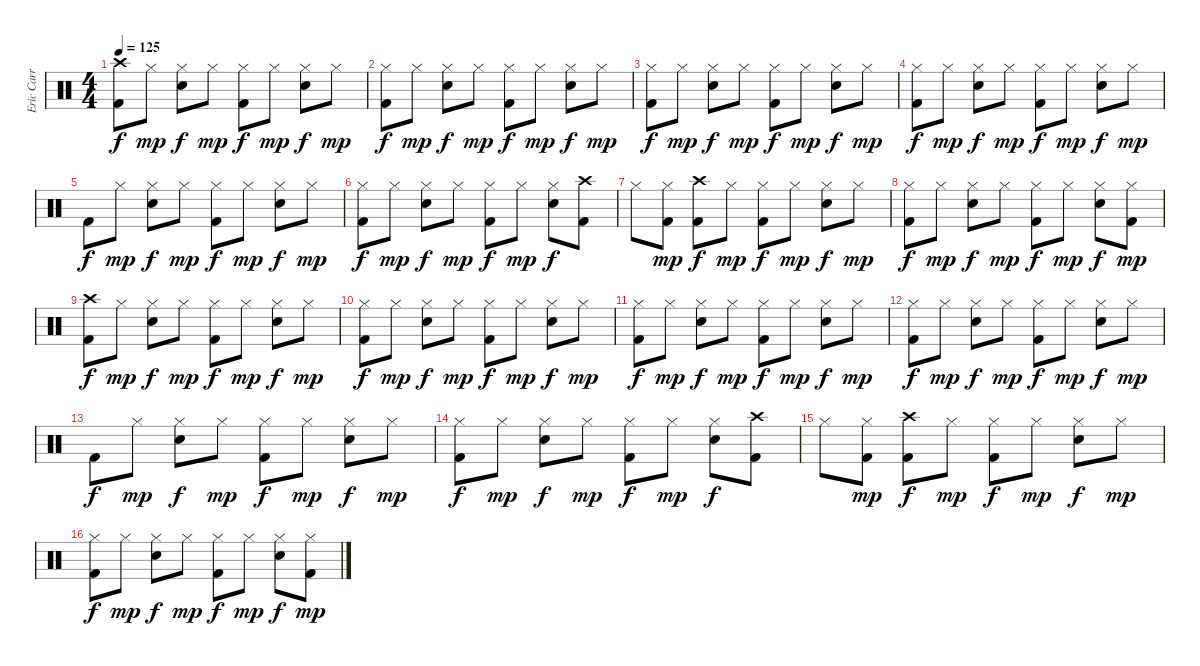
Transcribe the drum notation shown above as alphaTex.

\track ("Eric Carr" "Eric Carr") {instrument percussion}
\staff {score}
\articulation defaults
\ts (4 4)
\tempo 125
\clef neutral
\ks c
("Crash high (hit)" "Kick (hit) 2").8{dy f} "Hi-Hat (closed)".8{dy mp} ("Hi-Hat (closed)" "Snare (hit) 2").8{dy f} "Hi-Hat (closed)".8{dy mp} ("Hi-Hat (closed)" "Kick (hit) 2").8{dy f} "Hi-Hat (closed)".8{dy mp} ("Hi-Hat (closed)" "Snare (hit) 2").8{dy f} "Hi-Hat (closed)".8{dy mp} |
("Hi-Hat (closed)" "Kick (hit) 2").8{dy f} "Hi-Hat (closed)".8{dy mp} ("Hi-Hat (closed)" "Snare (hit) 2").8{dy f} "Hi-Hat (closed)".8{dy mp} ("Hi-Hat (closed)" "Kick (hit) 2").8{dy f} "Hi-Hat (closed)".8{dy mp} ("Hi-Hat (closed)" "Snare (hit) 2").8{dy f} "Hi-Hat (closed)".8{dy mp} |
("Hi-Hat (closed)" "Kick (hit) 2").8{dy f} "Hi-Hat (closed)".8{dy mp} ("Hi-Hat (closed)" "Snare (hit) 2").8{dy f} "Hi-Hat (closed)".8{dy mp} ("Hi-Hat (closed)" "Kick (hit) 2").8{dy f} "Hi-Hat (closed)".8{dy mp} ("Hi-Hat (closed)" "Snare (hit) 2").8{dy f} "Hi-Hat (closed)".8{dy mp} |
("Hi-Hat (closed)" "Kick (hit) 2").8{dy f} "Hi-Hat (closed)".8{dy mp} ("Hi-Hat (closed)" "Snare (hit) 2").8{dy f} "Hi-Hat (closed)".8{dy mp} ("Hi-Hat (closed)" "Kick (hit) 2").8{dy f} "Hi-Hat (closed)".8{dy mp} ("Hi-Hat (closed)" "Snare (hit) 2").8{dy f} "Hi-Hat (closed)".8{dy mp} |
"Kick (hit) 2".8{dy f} "Hi-Hat (closed)".8{dy mp} ("Hi-Hat (closed)" "Snare (hit) 2").8{dy f} "Hi-Hat (closed)".8{dy mp} ("Hi-Hat (closed)" "Kick (hit) 2").8{dy f} "Hi-Hat (closed)".8{dy mp} ("Hi-Hat (closed)" "Snare (hit) 2").8{dy f} "Hi-Hat (closed)".8{dy mp} |
("Hi-Hat (closed)" "Kick (hit) 2").8{dy f} "Hi-Hat (closed)".8{dy mp} ("Hi-Hat (closed)" "Snare (hit) 2").8{dy f} "Hi-Hat (closed)".8{dy mp} ("Hi-Hat (closed)" "Kick (hit) 2").8{dy f} "Hi-Hat (closed)".8{dy mp} ("Hi-Hat (closed)" "Snare (hit) 2").8{dy f} ("Crash high (hit)" "Kick (hit) 2").8 |
"Hi-Hat (closed)".8 ("Hi-Hat (closed)" "Kick (hit) 2").8{dy mp} ("Crash high (hit)" "Kick (hit) 2").8{dy f} "Hi-Hat (closed)".8{dy mp} ("Hi-Hat (closed)" "Kick (hit) 2").8{dy f} "Hi-Hat (closed)".8{dy mp} ("Hi-Hat (closed)" "Snare (hit) 2").8{dy f} "Hi-Hat (closed)".8{dy mp} |
("Hi-Hat (closed)" "Kick (hit) 2").8{dy f} "Hi-Hat (closed)".8{dy mp} ("Hi-Hat (closed)" "Snare (hit) 2").8{dy f} "Hi-Hat (closed)".8{dy mp} ("Hi-Hat (closed)" "Kick (hit) 2").8{dy f} "Hi-Hat (closed)".8{dy mp} ("Hi-Hat (closed)" "Snare (hit) 2").8{dy f} ("Hi-Hat (closed)" "Kick (hit) 2").8{dy mp} |
("Crash high (hit)" "Kick (hit) 2").8{dy f} "Hi-Hat (closed)".8{dy mp} ("Hi-Hat (closed)" "Snare (hit) 2").8{dy f} "Hi-Hat (closed)".8{dy mp} ("Hi-Hat (closed)" "Kick (hit) 2").8{dy f} "Hi-Hat (closed)".8{dy mp} ("Hi-Hat (closed)" "Snare (hit) 2").8{dy f} "Hi-Hat (closed)".8{dy mp} |
("Hi-Hat (closed)" "Kick (hit) 2").8{dy f} "Hi-Hat (closed)".8{dy mp} ("Hi-Hat (closed)" "Snare (hit) 2").8{dy f} "Hi-Hat (closed)".8{dy mp} ("Hi-Hat (closed)" "Kick (hit) 2").8{dy f} "Hi-Hat (closed)".8{dy mp} ("Hi-Hat (closed)" "Snare (hit) 2").8{dy f} "Hi-Hat (closed)".8{dy mp} |
("Hi-Hat (closed)" "Kick (hit) 2").8{dy f} "Hi-Hat (closed)".8{dy mp} ("Hi-Hat (closed)" "Snare (hit) 2").8{dy f} "Hi-Hat (closed)".8{dy mp} ("Hi-Hat (closed)" "Kick (hit) 2").8{dy f} "Hi-Hat (closed)".8{dy mp} ("Hi-Hat (closed)" "Snare (hit) 2").8{dy f} "Hi-Hat (closed)".8{dy mp} |
("Hi-Hat (closed)" "Kick (hit) 2").8{dy f} "Hi-Hat (closed)".8{dy mp} ("Hi-Hat (closed)" "Snare (hit) 2").8{dy f} "Hi-Hat (closed)".8{dy mp} ("Hi-Hat (closed)" "Kick (hit) 2").8{dy f} "Hi-Hat (closed)".8{dy mp} ("Hi-Hat (closed)" "Snare (hit) 2").8{dy f} "Hi-Hat (closed)".8{dy mp} |
"Kick (hit) 2".8{dy f} "Hi-Hat (closed)".8{dy mp} ("Hi-Hat (closed)" "Snare (hit) 2").8{dy f} "Hi-Hat (closed)".8{dy mp} ("Hi-Hat (closed)" "Kick (hit) 2").8{dy f} "Hi-Hat (closed)".8{dy mp} ("Hi-Hat (closed)" "Snare (hit) 2").8{dy f} "Hi-Hat (closed)".8{dy mp} |
("Hi-Hat (closed)" "Kick (hit) 2").8{dy f} "Hi-Hat (closed)".8{dy mp} ("Hi-Hat (closed)" "Snare (hit) 2").8{dy f} "Hi-Hat (closed)".8{dy mp} ("Hi-Hat (closed)" "Kick (hit) 2").8{dy f} "Hi-Hat (closed)".8{dy mp} ("Hi-Hat (closed)" "Snare (hit) 2").8{dy f} ("Crash high (hit)" "Kick (hit) 2").8 |
"Hi-Hat (closed)".8 ("Hi-Hat (closed)" "Kick (hit) 2").8{dy mp} ("Crash high (hit)" "Kick (hit) 2").8{dy f} "Hi-Hat (closed)".8{dy mp} ("Hi-Hat (closed)" "Kick (hit) 2").8{dy f} "Hi-Hat (closed)".8{dy mp} ("Hi-Hat (closed)" "Snare (hit) 2").8{dy f} "Hi-Hat (closed)".8{dy mp} |
("Hi-Hat (closed)" "Kick (hit) 2").8{dy f} "Hi-Hat (closed)".8{dy mp} ("Hi-Hat (closed)" "Snare (hit) 2").8{dy f} "Hi-Hat (closed)".8{dy mp} ("Hi-Hat (closed)" "Kick (hit) 2").8{dy f} "Hi-Hat (closed)".8{dy mp} ("Hi-Hat (closed)" "Snare (hit) 2").8{dy f} ("Hi-Hat (closed)" "Kick (hit) 2").8{dy mp}
